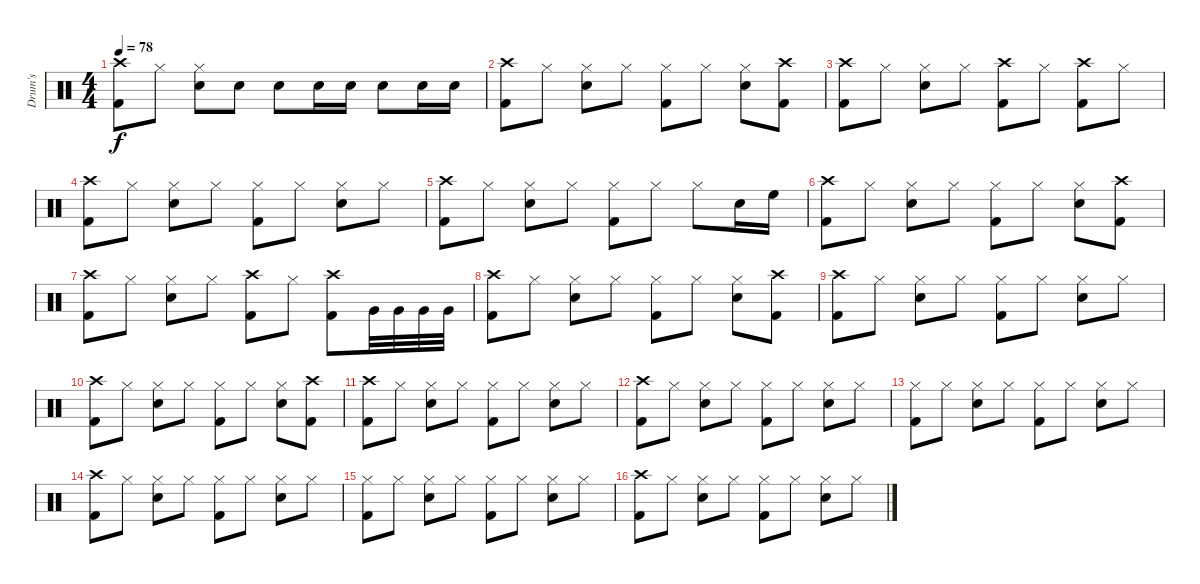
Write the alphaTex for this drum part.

\track ("Drum's " "Drum's ") {instrument percussion}
\staff {score}
\articulation defaults
\ts (4 4)
\tempo 78
\clef neutral
\ks c
("Crash high (hit)" "Kick (hit) 2").8{dy f} "Hi-Hat (closed)".8 ("Hi-Hat (closed)" "Snare (hit) 2").8 "Snare (hit) 2".8 "Snare (hit) 2".8 "Snare (hit) 2".16 "Snare (hit) 2".16 "Snare (hit) 2".8 "Snare (hit) 2".16 "Snare (hit) 2".16 |
("Crash high (hit)" "Kick (hit) 2").8 "Hi-Hat (closed)".8 ("Hi-Hat (closed)" "Snare (hit) 2").8 "Hi-Hat (closed)".8 ("Hi-Hat (closed)" "Kick (hit) 2").8 "Hi-Hat (closed)".8 ("Hi-Hat (closed)" "Snare (hit) 2").8 ("Crash high (hit)" "Kick (hit) 2").8 |
("Crash high (hit)" "Kick (hit) 2").8 "Hi-Hat (closed)".8 ("Hi-Hat (closed)" "Snare (hit) 2").8 "Hi-Hat (closed)".8 ("Crash high (hit)" "Kick (hit) 2").8 "Hi-Hat (closed)".8 ("Crash high (hit)" "Kick (hit) 2").8 "Hi-Hat (closed)".8 |
("Crash high (hit)" "Kick (hit) 2").8 "Hi-Hat (closed)".8 ("Hi-Hat (closed)" "Snare (hit) 2").8 "Hi-Hat (closed)".8 ("Hi-Hat (closed)" "Kick (hit) 2").8 "Hi-Hat (closed)".8 ("Hi-Hat (closed)" "Snare (hit) 2").8 "Hi-Hat (closed)".8 |
("Crash high (hit)" "Kick (hit) 2").8 "Hi-Hat (closed)".8 ("Hi-Hat (closed)" "Snare (hit) 2").8 "Hi-Hat (closed)".8 ("Hi-Hat (closed)" "Kick (hit) 2").8 "Hi-Hat (closed)".8 "Hi-Hat (closed)".8 "Snare (hit) 2".16 "High Floor Tom (hit)".16 |
("Crash high (hit)" "Kick (hit) 2").8 "Hi-Hat (closed)".8 ("Hi-Hat (closed)" "Snare (hit) 2").8 "Hi-Hat (closed)".8 ("Hi-Hat (closed)" "Kick (hit) 2").8 "Hi-Hat (closed)".8 ("Hi-Hat (closed)" "Snare (hit) 2").8 ("Crash high (hit)" "Kick (hit) 2").8 |
("Crash high (hit)" "Kick (hit) 2").8 "Hi-Hat (closed)".8 ("Hi-Hat (closed)" "Snare (hit) 2").8 "Hi-Hat (closed)".8 ("Crash high (hit)" "Kick (hit) 2").8 "Hi-Hat (closed)".8 ("Crash high (hit)" "Kick (hit) 2").8 "Very Low Tom (hit)".32 "Very Low Tom (hit)".32 "Very Low Tom (hit)".32 "Very Low Tom (hit)".32 |
("Crash high (hit)" "Kick (hit) 2").8 "Hi-Hat (closed)".8 ("Hi-Hat (closed)" "Snare (hit) 2").8 "Hi-Hat (closed)".8 ("Hi-Hat (closed)" "Kick (hit) 2").8 "Hi-Hat (closed)".8 ("Hi-Hat (closed)" "Snare (hit) 2").8 ("Crash high (hit)" "Kick (hit) 2").8 |
("Crash high (hit)" "Kick (hit) 2").8 "Hi-Hat (closed)".8 ("Hi-Hat (closed)" "Snare (hit) 2").8 "Hi-Hat (closed)".8 ("Hi-Hat (closed)" "Kick (hit) 2").8 "Hi-Hat (closed)".8 ("Hi-Hat (closed)" "Snare (hit) 2").8 "Hi-Hat (closed)".8 |
("Crash high (hit)" "Kick (hit) 2").8 "Hi-Hat (closed)".8 ("Hi-Hat (closed)" "Snare (hit) 2").8 "Hi-Hat (closed)".8 ("Hi-Hat (closed)" "Kick (hit) 2").8 "Hi-Hat (closed)".8 ("Hi-Hat (closed)" "Snare (hit) 2").8 ("Crash high (hit)" "Kick (hit) 2").8 |
("Crash high (hit)" "Kick (hit) 2").8 "Hi-Hat (closed)".8 ("Hi-Hat (closed)" "Snare (hit) 2").8 "Hi-Hat (closed)".8 ("Hi-Hat (closed)" "Kick (hit) 2").8 "Hi-Hat (closed)".8 ("Hi-Hat (closed)" "Snare (hit) 2").8 "Hi-Hat (closed)".8 |
("Crash high (hit)" "Kick (hit) 2").8 "Hi-Hat (closed)".8 ("Hi-Hat (closed)" "Snare (hit) 2").8 "Hi-Hat (closed)".8 ("Hi-Hat (closed)" "Kick (hit) 2").8 "Hi-Hat (closed)".8 ("Hi-Hat (closed)" "Snare (hit) 2").8 "Hi-Hat (closed)".8 |
("Hi-Hat (closed)" "Kick (hit) 2").8 "Hi-Hat (closed)".8 ("Hi-Hat (closed)" "Snare (hit) 2").8 "Hi-Hat (closed)".8 ("Hi-Hat (closed)" "Kick (hit) 2").8 "Hi-Hat (closed)".8 ("Hi-Hat (closed)" "Snare (hit) 2").8 "Hi-Hat (closed)".8 |
("Crash high (hit)" "Kick (hit) 2").8 "Hi-Hat (closed)".8 ("Hi-Hat (closed)" "Snare (hit) 2").8 "Hi-Hat (closed)".8 ("Hi-Hat (closed)" "Kick (hit) 2").8 "Hi-Hat (closed)".8 ("Hi-Hat (closed)" "Snare (hit) 2").8 "Hi-Hat (closed)".8 |
("Hi-Hat (closed)" "Kick (hit) 2").8 "Hi-Hat (closed)".8 ("Hi-Hat (closed)" "Snare (hit) 2").8 "Hi-Hat (closed)".8 ("Hi-Hat (closed)" "Kick (hit) 2").8 "Hi-Hat (closed)".8 ("Hi-Hat (closed)" "Snare (hit) 2").8 "Hi-Hat (closed)".8 |
("Crash high (hit)" "Kick (hit) 2").8 "Hi-Hat (closed)".8 ("Hi-Hat (closed)" "Snare (hit) 2").8 "Hi-Hat (closed)".8 ("Hi-Hat (closed)" "Kick (hit) 2").8 "Hi-Hat (closed)".8 ("Hi-Hat (closed)" "Snare (hit) 2").8 "Hi-Hat (closed)".8
